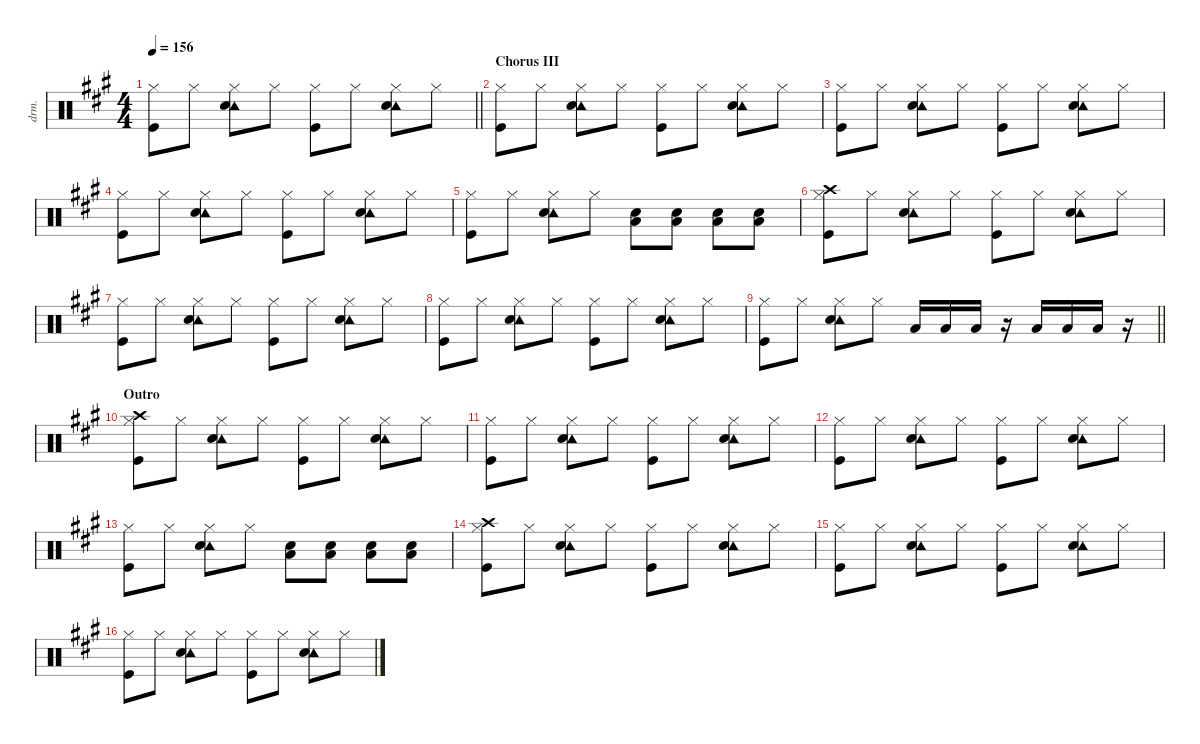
\defaultSystemsLayout 4
\hideDynamics
\bracketExtendMode nobrackets
\otherSystemsTrackNameOrientation horizontal
\track ("Drums" "drm.") {instrument percussion}
\staff {score}
\articulation defaults
\ts (4 4)
\tempo 156
\clef neutral
\barLineRight lightlight
\ks a
("Hi-Hat (closed)"{acc forcenatural} "Kick (hit)"{acc forcenatural}).8{dy f beam Down} "Hi-Hat (closed)"{acc forcenatural}.8{beam Down} ("Hi-Hat (closed)"{acc forcenatural} "Tambourine (hit)"{acc forcenatural} "Snare (hit) 2"{acc forcenatural}).8{beam Down} "Hi-Hat (closed)"{acc forcenatural}.8{beam Down} ("Hi-Hat (closed)"{acc forcenatural} "Kick (hit)"{acc forcenatural}).8{beam Down} "Hi-Hat (closed)"{acc forcenatural}.8{beam Down} ("Hi-Hat (closed)"{acc forcenatural} "Tambourine (hit)"{acc forcenatural} "Snare (hit) 2"{acc forcenatural}).8{beam Down} "Hi-Hat (closed)"{acc forcenatural}.8{beam Down} |
\section ("" "Chorus III")
("Hi-Hat (closed)"{acc forcenatural} "Kick (hit)"{acc forcenatural}).8{beam Down} "Hi-Hat (closed)"{acc forcenatural}.8{beam Down} ("Hi-Hat (closed)"{acc forcenatural} "Tambourine (hit)"{acc forcenatural} "Snare (hit) 2"{acc forcenatural}).8{beam Down} "Hi-Hat (closed)"{acc forcenatural}.8{beam Down} ("Hi-Hat (closed)"{acc forcenatural} "Kick (hit)"{acc forcenatural}).8{beam Down} "Hi-Hat (closed)"{acc forcenatural}.8{beam Down} ("Hi-Hat (closed)"{acc forcenatural} "Tambourine (hit)"{acc forcenatural} "Snare (hit) 2"{acc forcenatural}).8{beam Down} "Hi-Hat (closed)"{acc forcenatural}.8{beam Down} |
("Hi-Hat (closed)"{acc forcenatural} "Kick (hit)"{acc forcenatural}).8{beam Down} "Hi-Hat (closed)"{acc forcenatural}.8{beam Down} ("Hi-Hat (closed)"{acc forcenatural} "Tambourine (hit)"{acc forcenatural} "Snare (hit) 2"{acc forcenatural}).8{beam Down} "Hi-Hat (closed)"{acc forcenatural}.8{beam Down} ("Hi-Hat (closed)"{acc forcenatural} "Kick (hit)"{acc forcenatural}).8{beam Down} "Hi-Hat (closed)"{acc forcenatural}.8{beam Down} ("Hi-Hat (closed)"{acc forcenatural} "Tambourine (hit)"{acc forcenatural} "Snare (hit) 2"{acc forcenatural}).8{beam Down} "Hi-Hat (closed)"{acc forcenatural}.8{beam Down} |
("Hi-Hat (closed)"{acc forcenatural} "Kick (hit)"{acc forcenatural}).8{beam Down} "Hi-Hat (closed)"{acc forcenatural}.8{beam Down} ("Hi-Hat (closed)"{acc forcenatural} "Tambourine (hit)"{acc forcenatural} "Snare (hit) 2"{acc forcenatural}).8{beam Down} "Hi-Hat (closed)"{acc forcenatural}.8{beam Down} ("Hi-Hat (closed)"{acc forcenatural} "Kick (hit)"{acc forcenatural}).8{beam Down} "Hi-Hat (closed)"{acc forcenatural}.8{beam Down} ("Hi-Hat (closed)"{acc forcenatural} "Tambourine (hit)"{acc forcenatural} "Snare (hit) 2"{acc forcenatural}).8{beam Down} "Hi-Hat (closed)"{acc forcenatural}.8{beam Down} |
("Hi-Hat (closed)"{acc forcenatural} "Kick (hit)"{acc forcenatural}).8{beam Down} "Hi-Hat (closed)"{acc forcenatural}.8{beam Down} ("Hi-Hat (closed)"{acc forcenatural} "Tambourine (hit)"{acc forcenatural} "Snare (hit) 2"{acc forcenatural}).8{beam Down} "Hi-Hat (closed)"{acc forcenatural}.8{beam Down} ("Snare (hit) 2"{acc forcenatural} "Low Floor Tom (hit)"{acc forcenatural}).8{beam Down} ("Snare (hit) 2"{acc forcenatural} "Low Floor Tom (hit)"{acc forcenatural}).8{beam Down} ("Snare (hit) 2"{acc forcenatural} "Low Floor Tom (hit)"{acc forcenatural}).8{beam Down} ("Snare (hit) 2"{acc forcenatural} "Low Floor Tom (hit)"{acc forcenatural}).8{beam Down} |
("Hi-Hat (closed)"{acc forcenatural} "Crash high (hit)"{acc forcenatural} "Kick (hit)"{acc forcenatural}).8{beam Down} "Hi-Hat (closed)"{acc forcenatural}.8{beam Down} ("Hi-Hat (closed)"{acc forcenatural} "Tambourine (hit)"{acc forcenatural} "Snare (hit) 2"{acc forcenatural}).8{beam Down} "Hi-Hat (closed)"{acc forcenatural}.8{beam Down} ("Hi-Hat (closed)"{acc forcenatural} "Kick (hit)"{acc forcenatural}).8{beam Down} "Hi-Hat (closed)"{acc forcenatural}.8{beam Down} ("Hi-Hat (closed)"{acc forcenatural} "Tambourine (hit)"{acc forcenatural} "Snare (hit) 2"{acc forcenatural}).8{beam Down} "Hi-Hat (closed)"{acc forcenatural}.8{beam Down} |
("Hi-Hat (closed)"{acc forcenatural} "Kick (hit)"{acc forcenatural}).8{beam Down} "Hi-Hat (closed)"{acc forcenatural}.8{beam Down} ("Hi-Hat (closed)"{acc forcenatural} "Tambourine (hit)"{acc forcenatural} "Snare (hit) 2"{acc forcenatural}).8{beam Down} "Hi-Hat (closed)"{acc forcenatural}.8{beam Down} ("Hi-Hat (closed)"{acc forcenatural} "Kick (hit)"{acc forcenatural}).8{beam Down} "Hi-Hat (closed)"{acc forcenatural}.8{beam Down} ("Hi-Hat (closed)"{acc forcenatural} "Tambourine (hit)"{acc forcenatural} "Snare (hit) 2"{acc forcenatural}).8{beam Down} "Hi-Hat (closed)"{acc forcenatural}.8{beam Down} |
("Hi-Hat (closed)"{acc forcenatural} "Kick (hit)"{acc forcenatural}).8{beam Down} "Hi-Hat (closed)"{acc forcenatural}.8{beam Down} ("Hi-Hat (closed)"{acc forcenatural} "Tambourine (hit)"{acc forcenatural} "Snare (hit) 2"{acc forcenatural}).8{beam Down} "Hi-Hat (closed)"{acc forcenatural}.8{beam Down} ("Hi-Hat (closed)"{acc forcenatural} "Kick (hit)"{acc forcenatural}).8{beam Down} "Hi-Hat (closed)"{acc forcenatural}.8{beam Down} ("Hi-Hat (closed)"{acc forcenatural} "Tambourine (hit)"{acc forcenatural} "Snare (hit) 2"{acc forcenatural}).8{beam Down} "Hi-Hat (closed)"{acc forcenatural}.8{beam Down} |
\barLineRight lightlight
("Hi-Hat (closed)"{acc forcenatural} "Kick (hit)"{acc forcenatural}).8{beam Down} "Hi-Hat (closed)"{acc forcenatural}.8{beam Down} ("Hi-Hat (closed)"{acc forcenatural} "Tambourine (hit)"{acc forcenatural} "Snare (hit) 2"{acc forcenatural}).8{beam Down} "Hi-Hat (closed)"{acc forcenatural}.8{beam Down} "Low Tom (hit)"{acc forcenatural}.16{beam Up} "Low Tom (hit)"{acc forcenatural}.16{beam Up} "Low Tom (hit)"{acc forcenatural}.16{beam Up} r.16{beam Up} "Low Floor Tom (hit)"{acc forcenatural}.16{beam Up} "Low Floor Tom (hit)"{acc forcenatural}.16{beam Up} "Low Floor Tom (hit)"{acc forcenatural}.16{beam Up} r.16{beam Up} |
\section ("" "Outro")
("Hi-Hat (closed)"{acc forcenatural} "Crash high (hit)"{acc forcenatural} "Kick (hit)"{acc forcenatural}).8{beam Down} "Hi-Hat (closed)"{acc forcenatural}.8{beam Down} ("Hi-Hat (closed)"{acc forcenatural} "Tambourine (hit)"{acc forcenatural} "Snare (hit) 2"{acc forcenatural}).8{beam Down} "Hi-Hat (closed)"{acc forcenatural}.8{beam Down} ("Hi-Hat (closed)"{acc forcenatural} "Kick (hit)"{acc forcenatural}).8{beam Down} "Hi-Hat (closed)"{acc forcenatural}.8{beam Down} ("Hi-Hat (closed)"{acc forcenatural} "Tambourine (hit)"{acc forcenatural} "Snare (hit) 2"{acc forcenatural}).8{beam Down} "Hi-Hat (closed)"{acc forcenatural}.8{beam Down} |
("Hi-Hat (closed)"{acc forcenatural} "Kick (hit)"{acc forcenatural}).8{beam Down} "Hi-Hat (closed)"{acc forcenatural}.8{beam Down} ("Hi-Hat (closed)"{acc forcenatural} "Tambourine (hit)"{acc forcenatural} "Snare (hit) 2"{acc forcenatural}).8{beam Down} "Hi-Hat (closed)"{acc forcenatural}.8{beam Down} ("Hi-Hat (closed)"{acc forcenatural} "Kick (hit)"{acc forcenatural}).8{beam Down} "Hi-Hat (closed)"{acc forcenatural}.8{beam Down} ("Hi-Hat (closed)"{acc forcenatural} "Tambourine (hit)"{acc forcenatural} "Snare (hit) 2"{acc forcenatural}).8{beam Down} "Hi-Hat (closed)"{acc forcenatural}.8{beam Down} |
("Hi-Hat (closed)"{acc forcenatural} "Kick (hit)"{acc forcenatural}).8{beam Down} "Hi-Hat (closed)"{acc forcenatural}.8{beam Down} ("Hi-Hat (closed)"{acc forcenatural} "Tambourine (hit)"{acc forcenatural} "Snare (hit) 2"{acc forcenatural}).8{beam Down} "Hi-Hat (closed)"{acc forcenatural}.8{beam Down} ("Hi-Hat (closed)"{acc forcenatural} "Kick (hit)"{acc forcenatural}).8{beam Down} "Hi-Hat (closed)"{acc forcenatural}.8{beam Down} ("Hi-Hat (closed)"{acc forcenatural} "Tambourine (hit)"{acc forcenatural} "Snare (hit) 2"{acc forcenatural}).8{beam Down} "Hi-Hat (closed)"{acc forcenatural}.8{beam Down} |
("Hi-Hat (closed)"{acc forcenatural} "Kick (hit)"{acc forcenatural}).8{beam Down} "Hi-Hat (closed)"{acc forcenatural}.8{beam Down} ("Hi-Hat (closed)"{acc forcenatural} "Tambourine (hit)"{acc forcenatural} "Snare (hit) 2"{acc forcenatural}).8{beam Down} "Hi-Hat (closed)"{acc forcenatural}.8{beam Down} ("Snare (hit) 2"{acc forcenatural} "Low Floor Tom (hit)"{acc forcenatural}).8{beam Down} ("Snare (hit) 2"{acc forcenatural} "Low Floor Tom (hit)"{acc forcenatural}).8{beam Down} ("Snare (hit) 2"{acc forcenatural} "Low Floor Tom (hit)"{acc forcenatural}).8{beam Down} ("Snare (hit) 2"{acc forcenatural} "Low Floor Tom (hit)"{acc forcenatural}).8{beam Down} |
("Hi-Hat (closed)"{acc forcenatural} "Crash high (hit)"{acc forcenatural} "Kick (hit)"{acc forcenatural}).8{beam Down} "Hi-Hat (closed)"{acc forcenatural}.8{beam Down} ("Hi-Hat (closed)"{acc forcenatural} "Tambourine (hit)"{acc forcenatural} "Snare (hit) 2"{acc forcenatural}).8{beam Down} "Hi-Hat (closed)"{acc forcenatural}.8{beam Down} ("Hi-Hat (closed)"{acc forcenatural} "Kick (hit)"{acc forcenatural}).8{beam Down} "Hi-Hat (closed)"{acc forcenatural}.8{beam Down} ("Hi-Hat (closed)"{acc forcenatural} "Tambourine (hit)"{acc forcenatural} "Snare (hit) 2"{acc forcenatural}).8{beam Down} "Hi-Hat (closed)"{acc forcenatural}.8{beam Down} |
("Hi-Hat (closed)"{acc forcenatural} "Kick (hit)"{acc forcenatural}).8{beam Down} "Hi-Hat (closed)"{acc forcenatural}.8{beam Down} ("Hi-Hat (closed)"{acc forcenatural} "Tambourine (hit)"{acc forcenatural} "Snare (hit) 2"{acc forcenatural}).8{beam Down} "Hi-Hat (closed)"{acc forcenatural}.8{beam Down} ("Hi-Hat (closed)"{acc forcenatural} "Kick (hit)"{acc forcenatural}).8{beam Down} "Hi-Hat (closed)"{acc forcenatural}.8{beam Down} ("Hi-Hat (closed)"{acc forcenatural} "Tambourine (hit)"{acc forcenatural} "Snare (hit) 2"{acc forcenatural}).8{beam Down} "Hi-Hat (closed)"{acc forcenatural}.8{beam Down} |
("Hi-Hat (closed)"{acc forcenatural} "Kick (hit)"{acc forcenatural}).8{beam Down} "Hi-Hat (closed)"{acc forcenatural}.8{beam Down} ("Hi-Hat (closed)"{acc forcenatural} "Tambourine (hit)"{acc forcenatural} "Snare (hit) 2"{acc forcenatural}).8{beam Down} "Hi-Hat (closed)"{acc forcenatural}.8{beam Down} ("Hi-Hat (closed)"{acc forcenatural} "Kick (hit)"{acc forcenatural}).8{beam Down} "Hi-Hat (closed)"{acc forcenatural}.8{beam Down} ("Hi-Hat (closed)"{acc forcenatural} "Tambourine (hit)"{acc forcenatural} "Snare (hit) 2"{acc forcenatural}).8{beam Down} "Hi-Hat (closed)"{acc forcenatural}.8{beam Down}
